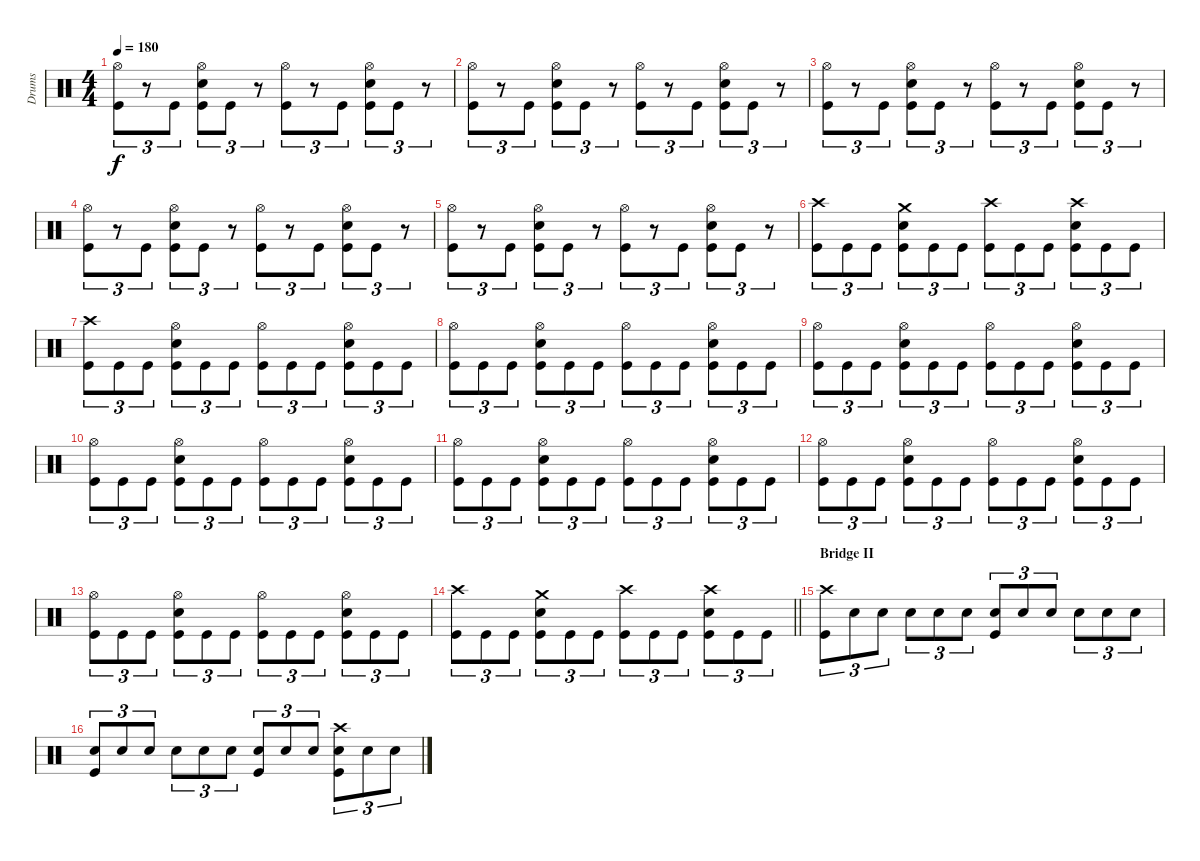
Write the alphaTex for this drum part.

\track ("Drums" "Drums") {instrument percussion}
\staff {score}
\articulation defaults
\ts (4 4)
\tempo 180
\clef neutral
\ks c
("Hi-Hat (open)" "Kick (hit)").8{tu (3 2) dy f} r.8{tu (3 2)} "Kick (hit)".8{tu (3 2)} ("Hi-Hat (open)" "Electric Snare (hit)" "Kick (hit)").8{tu (3 2)} "Kick (hit)".8{tu (3 2)} r.8{tu (3 2)} ("Hi-Hat (open)" "Kick (hit)").8{tu (3 2)} r.8{tu (3 2)} "Kick (hit)".8{tu (3 2)} ("Hi-Hat (open)" "Electric Snare (hit)" "Kick (hit)").8{tu (3 2)} "Kick (hit)".8{tu (3 2)} r.8{tu (3 2)} |
("Hi-Hat (open)" "Kick (hit)").8{tu (3 2)} r.8{tu (3 2)} "Kick (hit)".8{tu (3 2)} ("Hi-Hat (open)" "Electric Snare (hit)" "Kick (hit)").8{tu (3 2)} "Kick (hit)".8{tu (3 2)} r.8{tu (3 2)} ("Hi-Hat (open)" "Kick (hit)").8{tu (3 2)} r.8{tu (3 2)} "Kick (hit)".8{tu (3 2)} ("Hi-Hat (open)" "Electric Snare (hit)" "Kick (hit)").8{tu (3 2)} "Kick (hit)".8{tu (3 2)} r.8{tu (3 2)} |
("Hi-Hat (open)" "Kick (hit)").8{tu (3 2)} r.8{tu (3 2)} "Kick (hit)".8{tu (3 2)} ("Hi-Hat (open)" "Electric Snare (hit)" "Kick (hit)").8{tu (3 2)} "Kick (hit)".8{tu (3 2)} r.8{tu (3 2)} ("Hi-Hat (open)" "Kick (hit)").8{tu (3 2)} r.8{tu (3 2)} "Kick (hit)".8{tu (3 2)} ("Hi-Hat (open)" "Electric Snare (hit)" "Kick (hit)").8{tu (3 2)} "Kick (hit)".8{tu (3 2)} r.8{tu (3 2)} |
("Hi-Hat (open)" "Kick (hit)").8{tu (3 2)} r.8{tu (3 2)} "Kick (hit)".8{tu (3 2)} ("Hi-Hat (open)" "Electric Snare (hit)" "Kick (hit)").8{tu (3 2)} "Kick (hit)".8{tu (3 2)} r.8{tu (3 2)} ("Hi-Hat (open)" "Kick (hit)").8{tu (3 2)} r.8{tu (3 2)} "Kick (hit)".8{tu (3 2)} ("Hi-Hat (open)" "Electric Snare (hit)" "Kick (hit)").8{tu (3 2)} "Kick (hit)".8{tu (3 2)} r.8{tu (3 2)} |
("Hi-Hat (open)" "Kick (hit)").8{tu (3 2)} r.8{tu (3 2)} "Kick (hit)".8{tu (3 2)} ("Hi-Hat (open)" "Electric Snare (hit)" "Kick (hit)").8{tu (3 2)} "Kick (hit)".8{tu (3 2)} r.8{tu (3 2)} ("Hi-Hat (open)" "Kick (hit)").8{tu (3 2)} r.8{tu (3 2)} "Kick (hit)".8{tu (3 2)} ("Hi-Hat (open)" "Electric Snare (hit)" "Kick (hit)").8{tu (3 2)} "Kick (hit)".8{tu (3 2)} r.8{tu (3 2)} |
("Crash high (hit)" "Kick (hit)").8{tu (3 2)} "Kick (hit)".8{tu (3 2)} "Kick (hit)".8{tu (3 2)} ("Crash medium (hit)" "Electric Snare (hit)" "Kick (hit)").8{tu (3 2)} "Kick (hit)".8{tu (3 2)} "Kick (hit)".8{tu (3 2)} ("Crash high (hit)" "Kick (hit)").8{tu (3 2)} "Kick (hit)".8{tu (3 2)} "Kick (hit)".8{tu (3 2)} ("Crash high (hit)" "Electric Snare (hit)" "Kick (hit)").8{tu (3 2)} "Kick (hit)".8{tu (3 2)} "Kick (hit)".8{tu (3 2)} |
("Crash high (hit)" "Kick (hit)").8{tu (3 2)} "Kick (hit)".8{tu (3 2)} "Kick (hit)".8{tu (3 2)} ("Hi-Hat (open)" "Electric Snare (hit)" "Kick (hit)").8{tu (3 2)} "Kick (hit)".8{tu (3 2)} "Kick (hit)".8{tu (3 2)} ("Hi-Hat (open)" "Kick (hit)").8{tu (3 2)} "Kick (hit)".8{tu (3 2)} "Kick (hit)".8{tu (3 2)} ("Hi-Hat (open)" "Electric Snare (hit)" "Kick (hit)").8{tu (3 2)} "Kick (hit)".8{tu (3 2)} "Kick (hit)".8{tu (3 2)} |
("Hi-Hat (open)" "Kick (hit)").8{tu (3 2)} "Kick (hit)".8{tu (3 2)} "Kick (hit)".8{tu (3 2)} ("Hi-Hat (open)" "Electric Snare (hit)" "Kick (hit)").8{tu (3 2)} "Kick (hit)".8{tu (3 2)} "Kick (hit)".8{tu (3 2)} ("Hi-Hat (open)" "Kick (hit)").8{tu (3 2)} "Kick (hit)".8{tu (3 2)} "Kick (hit)".8{tu (3 2)} ("Hi-Hat (open)" "Electric Snare (hit)" "Kick (hit)").8{tu (3 2)} "Kick (hit)".8{tu (3 2)} "Kick (hit)".8{tu (3 2)} |
("Hi-Hat (open)" "Kick (hit)").8{tu (3 2)} "Kick (hit)".8{tu (3 2)} "Kick (hit)".8{tu (3 2)} ("Hi-Hat (open)" "Electric Snare (hit)" "Kick (hit)").8{tu (3 2)} "Kick (hit)".8{tu (3 2)} "Kick (hit)".8{tu (3 2)} ("Hi-Hat (open)" "Kick (hit)").8{tu (3 2)} "Kick (hit)".8{tu (3 2)} "Kick (hit)".8{tu (3 2)} ("Hi-Hat (open)" "Electric Snare (hit)" "Kick (hit)").8{tu (3 2)} "Kick (hit)".8{tu (3 2)} "Kick (hit)".8{tu (3 2)} |
("Hi-Hat (open)" "Kick (hit)").8{tu (3 2)} "Kick (hit)".8{tu (3 2)} "Kick (hit)".8{tu (3 2)} ("Hi-Hat (open)" "Electric Snare (hit)" "Kick (hit)").8{tu (3 2)} "Kick (hit)".8{tu (3 2)} "Kick (hit)".8{tu (3 2)} ("Hi-Hat (open)" "Kick (hit)").8{tu (3 2)} "Kick (hit)".8{tu (3 2)} "Kick (hit)".8{tu (3 2)} ("Hi-Hat (open)" "Electric Snare (hit)" "Kick (hit)").8{tu (3 2)} "Kick (hit)".8{tu (3 2)} "Kick (hit)".8{tu (3 2)} |
("Hi-Hat (open)" "Kick (hit)").8{tu (3 2)} "Kick (hit)".8{tu (3 2)} "Kick (hit)".8{tu (3 2)} ("Hi-Hat (open)" "Electric Snare (hit)" "Kick (hit)").8{tu (3 2)} "Kick (hit)".8{tu (3 2)} "Kick (hit)".8{tu (3 2)} ("Hi-Hat (open)" "Kick (hit)").8{tu (3 2)} "Kick (hit)".8{tu (3 2)} "Kick (hit)".8{tu (3 2)} ("Hi-Hat (open)" "Electric Snare (hit)" "Kick (hit)").8{tu (3 2)} "Kick (hit)".8{tu (3 2)} "Kick (hit)".8{tu (3 2)} |
("Hi-Hat (open)" "Kick (hit)").8{tu (3 2)} "Kick (hit)".8{tu (3 2)} "Kick (hit)".8{tu (3 2)} ("Hi-Hat (open)" "Electric Snare (hit)" "Kick (hit)").8{tu (3 2)} "Kick (hit)".8{tu (3 2)} "Kick (hit)".8{tu (3 2)} ("Hi-Hat (open)" "Kick (hit)").8{tu (3 2)} "Kick (hit)".8{tu (3 2)} "Kick (hit)".8{tu (3 2)} ("Hi-Hat (open)" "Electric Snare (hit)" "Kick (hit)").8{tu (3 2)} "Kick (hit)".8{tu (3 2)} "Kick (hit)".8{tu (3 2)} |
("Hi-Hat (open)" "Kick (hit)").8{tu (3 2)} "Kick (hit)".8{tu (3 2)} "Kick (hit)".8{tu (3 2)} ("Hi-Hat (open)" "Electric Snare (hit)" "Kick (hit)").8{tu (3 2)} "Kick (hit)".8{tu (3 2)} "Kick (hit)".8{tu (3 2)} ("Hi-Hat (open)" "Kick (hit)").8{tu (3 2)} "Kick (hit)".8{tu (3 2)} "Kick (hit)".8{tu (3 2)} ("Hi-Hat (open)" "Electric Snare (hit)" "Kick (hit)").8{tu (3 2)} "Kick (hit)".8{tu (3 2)} "Kick (hit)".8{tu (3 2)} |
\barLineRight lightlight
("Crash high (hit)" "Kick (hit)").8{tu (3 2)} "Kick (hit)".8{tu (3 2)} "Kick (hit)".8{tu (3 2)} ("Crash medium (hit)" "Electric Snare (hit)" "Kick (hit)").8{tu (3 2)} "Kick (hit)".8{tu (3 2)} "Kick (hit)".8{tu (3 2)} ("Crash high (hit)" "Kick (hit)").8{tu (3 2)} "Kick (hit)".8{tu (3 2)} "Kick (hit)".8{tu (3 2)} ("Crash high (hit)" "Electric Snare (hit)" "Kick (hit)").8{tu (3 2)} "Kick (hit)".8{tu (3 2)} "Kick (hit)".8{tu (3 2)} |
\section ("" "Bridge II")
("Crash high (hit)" "Kick (hit)").8{tu (3 2)} "Electric Snare (hit)".8{tu (3 2)} "Electric Snare (hit)".8{tu (3 2)} "Electric Snare (hit)".8{tu (3 2)} "Electric Snare (hit)".8{tu (3 2)} "Electric Snare (hit)".8{tu (3 2)} ("Electric Snare (hit)" "Kick (hit)").8{tu (3 2)} "Electric Snare (hit)".8{tu (3 2)} "Electric Snare (hit)".8{tu (3 2)} "Electric Snare (hit)".8{tu (3 2)} "Electric Snare (hit)".8{tu (3 2)} "Electric Snare (hit)".8{tu (3 2)} |
("Electric Snare (hit)" "Kick (hit)").8{tu (3 2)} "Electric Snare (hit)".8{tu (3 2)} "Electric Snare (hit)".8{tu (3 2)} "Electric Snare (hit)".8{tu (3 2)} "Electric Snare (hit)".8{tu (3 2)} "Electric Snare (hit)".8{tu (3 2)} ("Electric Snare (hit)" "Kick (hit)").8{tu (3 2)} "Electric Snare (hit)".8{tu (3 2)} "Electric Snare (hit)".8{tu (3 2)} ("Crash high (hit)" "Electric Snare (hit)" "Kick (hit)").8{tu (3 2)} "Electric Snare (hit)".8{tu (3 2)} "Electric Snare (hit)".8{tu (3 2)}
